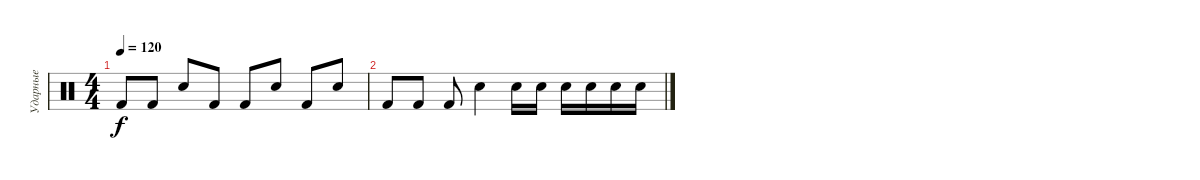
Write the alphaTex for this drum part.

\track ("Ударные" "Ударные") {instrument percussion}
\staff {score}
\articulation defaults
\ts (4 4)
\tempo 120
\clef neutral
\ks c "Kick (hit) 2".8{dy f} "Kick (hit) 2".8 "Snare (hit) 2".8 "Kick (hit) 2".8 "Kick (hit) 2".8 "Snare (hit) 2".8 "Kick (hit) 2".8 "Snare (hit) 2".8
|
"Kick (hit) 2".8 "Kick (hit) 2".8 "Kick (hit) 2".8 "Snare (hit) 2".4 "Snare (hit) 2".16 "Snare (hit) 2".16 "Snare (hit) 2".16 "Snare (hit) 2".16 "Snare (hit) 2".16 "Snare (hit) 2".16
